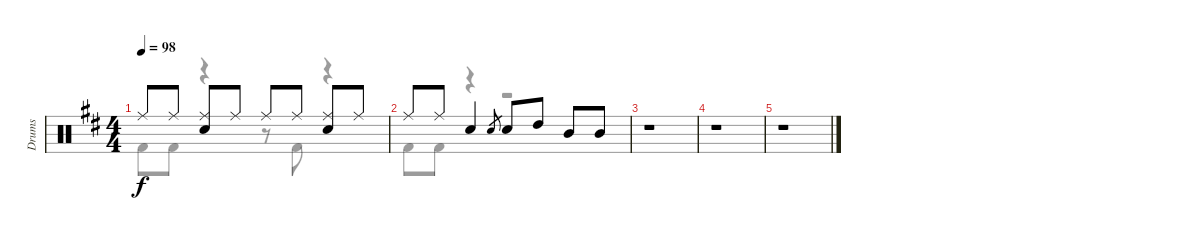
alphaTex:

\track ("Drums" "Drums") {instrument percussion}
\staff {score}
\articulation defaults
\voice
\ts (4 4)
\tempo 98
\clef neutral
\ks d "Ride (middle)".8{dy f} "Ride (middle)".8
("Ride (middle)" "Snare (hit) 2").8 "Ride (middle)".8 "Ride (middle)".8 "Ride (middle)".8 ("Ride (middle)" "Snare (hit) 2").8 "Ride (middle)".8 |
"Ride (middle)".8 "Ride (middle)".8 "Snare (hit) 2".4 "Snare (hit) 2".8{gr} "Snare (hit) 2".8 "High Tom (hit)".8 "Mid Tom (hit)".8 "Mid Tom (hit)".8 |
r.1 |
r.1 |
r.1
\voice
\clef neutral
\ottava regular
\simile none
\ks d "Kick (hit) 2".8{dy f} "Kick (hit) 2".8
r.4 r.8 "Kick (hit) 2".8 r.4 |
"Kick (hit) 2".8 "Kick (hit) 2".8 r.4 r.2 |
r.1 |
r.1 |
r.1
